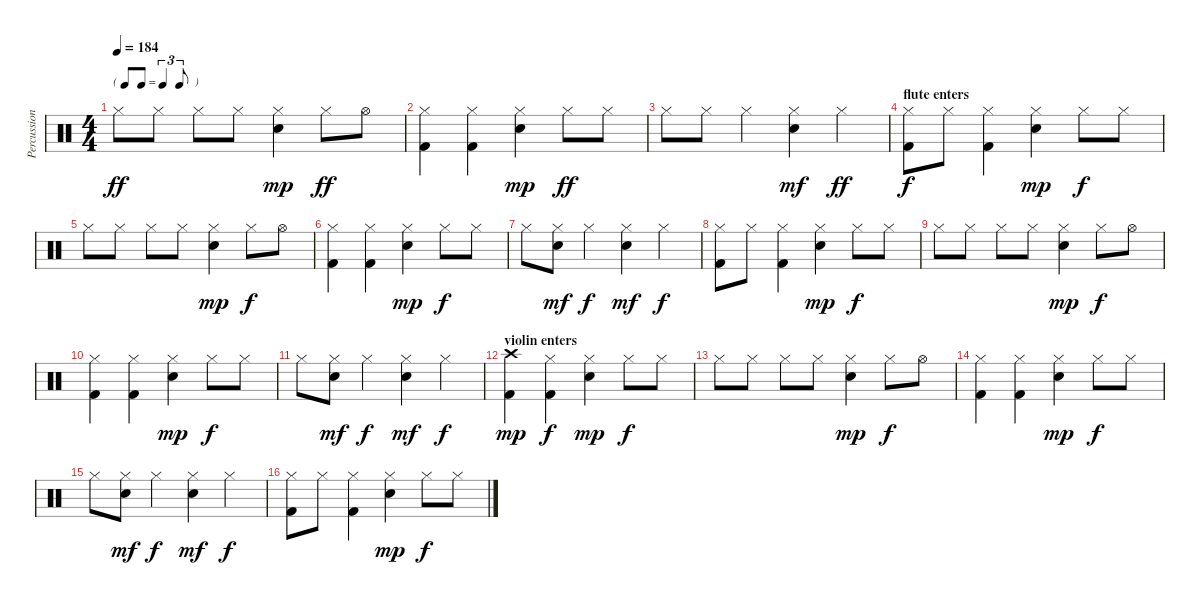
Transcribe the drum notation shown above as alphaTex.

\track ("Percussion" "Percussion") {instrument percussion}
\staff {score}
\articulation defaults
\ts (4 4)
\tf triplet8th
\tempo 184
\clef neutral
\ks c "Hi-Hat (closed)".8{dy ff} "Hi-Hat (closed)".8 "Hi-Hat (closed)".8 "Hi-Hat (closed)".8
("Hi-Hat (closed)" "Electric Snare (hit)").4{dy mp} "Hi-Hat (closed)".8{dy ff} "Hi-Hat (open)".8 |
("Hi-Hat (closed)" "Kick (hit) 2").4 ("Hi-Hat (closed)" "Kick (hit) 2").4 ("Hi-Hat (closed)" "Electric Snare (hit)").4{dy mp} "Hi-Hat (closed)".8{dy ff} "Hi-Hat (closed)".8 |
"Hi-Hat (closed)".8 "Hi-Hat (closed)".8 "Hi-Hat (closed)".4 ("Hi-Hat (closed)" "Electric Snare (hit)").4{dy mf} "Hi-Hat (closed)".4{dy ff} |
\section ("" "flute enters")
("Hi-Hat (closed)" "Kick (hit) 2").8{dy f} "Hi-Hat (closed)".8 ("Hi-Hat (closed)" "Kick (hit) 2").4 ("Hi-Hat (closed)" "Electric Snare (hit)").4{dy mp} "Hi-Hat (closed)".8{dy f} "Hi-Hat (closed)".8 |
"Hi-Hat (closed)".8 "Hi-Hat (closed)".8 "Hi-Hat (closed)".8 "Hi-Hat (closed)".8 ("Hi-Hat (closed)" "Electric Snare (hit)").4{dy mp} "Hi-Hat (closed)".8{dy f} "Hi-Hat (open)".8 |
("Hi-Hat (closed)" "Kick (hit) 2").4 ("Hi-Hat (closed)" "Kick (hit) 2").4 ("Hi-Hat (closed)" "Electric Snare (hit)").4{dy mp} "Hi-Hat (closed)".8{dy f} "Hi-Hat (closed)".8 |
"Hi-Hat (closed)".8 ("Hi-Hat (closed)" "Electric Snare (hit)").8{dy mf} "Hi-Hat (closed)".4{dy f} ("Hi-Hat (closed)" "Electric Snare (hit)").4{dy mf} "Hi-Hat (closed)".4{dy f} |
("Hi-Hat (closed)" "Kick (hit) 2").8 "Hi-Hat (closed)".8 ("Hi-Hat (closed)" "Kick (hit) 2").4 ("Hi-Hat (closed)" "Electric Snare (hit)").4{dy mp} "Hi-Hat (closed)".8{dy f} "Hi-Hat (closed)".8 |
"Hi-Hat (closed)".8 "Hi-Hat (closed)".8 "Hi-Hat (closed)".8 "Hi-Hat (closed)".8 ("Hi-Hat (closed)" "Electric Snare (hit)").4{dy mp} "Hi-Hat (closed)".8{dy f} "Hi-Hat (open)".8 |
("Hi-Hat (closed)" "Kick (hit) 2").4 ("Hi-Hat (closed)" "Kick (hit) 2").4 ("Hi-Hat (closed)" "Electric Snare (hit)").4{dy mp} "Hi-Hat (closed)".8{dy f} "Hi-Hat (closed)".8 |
"Hi-Hat (closed)".8 ("Hi-Hat (closed)" "Electric Snare (hit)").8{dy mf} "Hi-Hat (closed)".4{dy f} ("Hi-Hat (closed)" "Electric Snare (hit)").4{dy mf} "Hi-Hat (closed)".4{dy f} |
\section ("" "violin enters")
("Crash high (hit)" "Kick (hit) 2").4{dy mp} ("Hi-Hat (closed)" "Kick (hit) 2").4{dy f} ("Hi-Hat (closed)" "Electric Snare (hit)").4{dy mp} "Hi-Hat (closed)".8{dy f} "Hi-Hat (closed)".8 |
"Hi-Hat (closed)".8 "Hi-Hat (closed)".8 "Hi-Hat (closed)".8 "Hi-Hat (closed)".8 ("Hi-Hat (closed)" "Electric Snare (hit)").4{dy mp} "Hi-Hat (closed)".8{dy f} "Hi-Hat (open)".8 |
("Hi-Hat (closed)" "Kick (hit) 2").4 ("Hi-Hat (closed)" "Kick (hit) 2").4 ("Hi-Hat (closed)" "Electric Snare (hit)").4{dy mp} "Hi-Hat (closed)".8{dy f} "Hi-Hat (closed)".8 |
"Hi-Hat (closed)".8 ("Hi-Hat (closed)" "Electric Snare (hit)").8{dy mf} "Hi-Hat (closed)".4{dy f} ("Hi-Hat (closed)" "Electric Snare (hit)").4{dy mf} "Hi-Hat (closed)".4{dy f} |
("Hi-Hat (closed)" "Kick (hit) 2").8 "Hi-Hat (closed)".8 ("Hi-Hat (closed)" "Kick (hit) 2").4 ("Hi-Hat (closed)" "Electric Snare (hit)").4{dy mp} "Hi-Hat (closed)".8{dy f} "Hi-Hat (closed)".8
